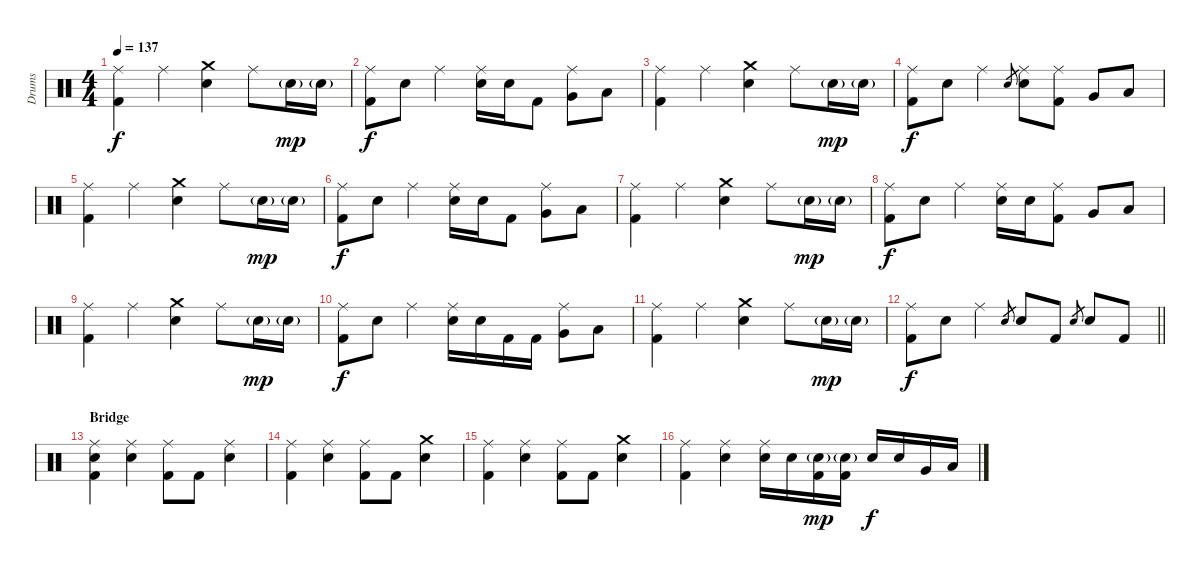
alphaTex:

\track ("Drums" "Drums") {instrument percussion}
\staff {score}
\articulation defaults
\ts (4 4)
\tempo 137
\clef neutral
\ks c
("Ride (middle)" "Kick (hit) 2").4{dy f} "Ride (middle)".4 ("Crash medium (hit)" "Electric Snare (hit)").4 "Ride (middle)".8 "Electric Snare (hit)"{g}.16{dy mp} "Electric Snare (hit)"{g}.16 |
("Ride (middle)" "Kick (hit) 2").8{dy f} "Electric Snare (hit)".8 "Ride (middle)".4 ("Ride (middle)" "Electric Snare (hit)").16 "Electric Snare (hit)".16 "Kick (hit) 2".8 ("Ride (middle)" "Very Low Tom (hit)").8 "Low Floor Tom (hit)".8 |
("Ride (middle)" "Kick (hit) 2").4 "Ride (middle)".4 ("Crash medium (hit)" "Electric Snare (hit)").4 "Ride (middle)".8 "Electric Snare (hit)"{g}.16{dy mp} "Electric Snare (hit)"{g}.16 |
("Ride (middle)" "Kick (hit) 2").8{dy f} "Electric Snare (hit)".8 "Ride (middle)".4 "Electric Snare (hit)".8{gr} ("Ride (middle)" "Electric Snare (hit)").8 ("Ride (middle)" "Kick (hit) 2").8 "Very Low Tom (hit)".8 "Low Floor Tom (hit)".8 |
("Ride (middle)" "Kick (hit) 2").4 "Ride (middle)".4 ("Crash medium (hit)" "Electric Snare (hit)").4 "Ride (middle)".8 "Electric Snare (hit)"{g}.16{dy mp} "Electric Snare (hit)"{g}.16 |
("Ride (middle)" "Kick (hit) 2").8{dy f} "Electric Snare (hit)".8 "Ride (middle)".4 ("Ride (middle)" "Electric Snare (hit)").16 "Electric Snare (hit)".16 "Kick (hit) 2".8 ("Ride (middle)" "Very Low Tom (hit)").8 "Low Floor Tom (hit)".8 |
("Ride (middle)" "Kick (hit) 2").4 "Ride (middle)".4 ("Crash medium (hit)" "Electric Snare (hit)").4 "Ride (middle)".8 "Electric Snare (hit)"{g}.16{dy mp} "Electric Snare (hit)"{g}.16 |
("Ride (middle)" "Kick (hit) 2").8{dy f} "Electric Snare (hit)".8 "Ride (middle)".4 ("Ride (middle)" "Electric Snare (hit)").16 "Electric Snare (hit)".16 ("Ride (middle)" "Kick (hit) 2").8 "Very Low Tom (hit)".8 "Low Floor Tom (hit)".8 |
("Ride (middle)" "Kick (hit) 2").4 "Ride (middle)".4 ("Crash medium (hit)" "Electric Snare (hit)").4 "Ride (middle)".8 "Electric Snare (hit)"{g}.16{dy mp} "Electric Snare (hit)"{g}.16 |
("Ride (middle)" "Kick (hit) 2").8{dy f} "Electric Snare (hit)".8 "Ride (middle)".4 ("Ride (middle)" "Electric Snare (hit)").16 "Electric Snare (hit)".16 "Kick (hit) 2".16 "Kick (hit) 2".16 ("Ride (middle)" "Very Low Tom (hit)").8 "Low Floor Tom (hit)".8 |
("Ride (middle)" "Kick (hit) 2").4 "Ride (middle)".4 ("Crash medium (hit)" "Electric Snare (hit)").4 "Ride (middle)".8 "Electric Snare (hit)"{g}.16{dy mp} "Electric Snare (hit)"{g}.16 |
\barLineRight lightlight
("Ride (middle)" "Kick (hit) 2").8{dy f} "Electric Snare (hit)".8 "Ride (middle)".4 "Electric Snare (hit)".8{gr} "Electric Snare (hit)".8 "Kick (hit) 2".8 "Electric Snare (hit)".8{gr} "Electric Snare (hit)".8 "Kick (hit) 2".8 |
\section ("" "Bridge ")
("Ride (middle)" "Electric Snare (hit)" "Kick (hit) 2").4 ("Ride (middle)" "Electric Snare (hit)").4 ("Ride (middle)" "Kick (hit) 2").8 "Kick (hit) 2".8 ("Ride (middle)" "Electric Snare (hit)").4 |
("Ride (middle)" "Kick (hit) 2").4 ("Ride (middle)" "Electric Snare (hit)").4 ("Ride (middle)" "Kick (hit) 2").8 "Kick (hit) 2".8 ("Crash medium (hit)" "Electric Snare (hit)").4 |
("Ride (middle)" "Kick (hit) 2").4 ("Ride (middle)" "Electric Snare (hit)").4 ("Ride (middle)" "Kick (hit) 2").8 "Kick (hit) 2".8 ("Crash medium (hit)" "Electric Snare (hit)").4 |
("Ride (middle)" "Kick (hit) 2").4 ("Ride (middle)" "Electric Snare (hit)").4 ("Ride (middle)" "Electric Snare (hit)").16 "Electric Snare (hit)".16 ("Electric Snare (hit)"{g} "Kick (hit) 2").16{dy mp} ("Electric Snare (hit)"{g} "Kick (hit) 2").16 "Electric Snare (hit)".16{dy f} "Electric Snare (hit)".16 "Very Low Tom (hit)".16 "Low Floor Tom (hit)".16
